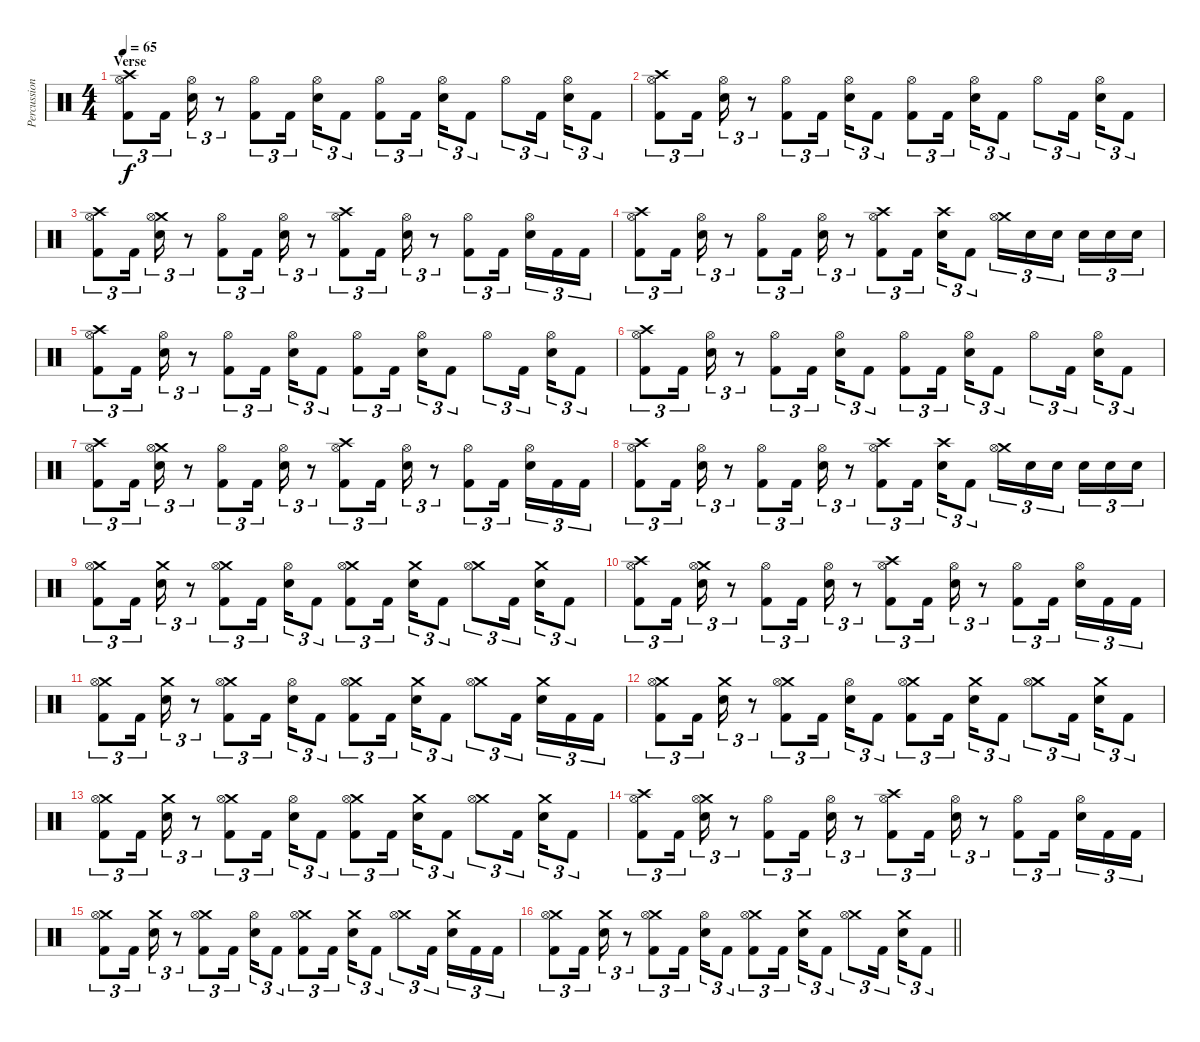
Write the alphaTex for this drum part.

\track ("Percussion" "Percussion") {instrument percussion}
\staff {score}
\articulation defaults
\ts (4 4)
\section ("" "Verse")
\tempo 65
\clef neutral
\ks c
("Crash high (hit)" "Hi-Hat (open)" "Kick (hit) 2").8{tu (3 2) dy f} "Kick (hit) 2".16{tu (3 2)} ("Hi-Hat (open)" "Electric Snare (hit)").16{tu (3 2)} r.8{tu (3 2)} ("Hi-Hat (open)" "Kick (hit) 2").8{tu (3 2)} "Kick (hit) 2".16{tu (3 2) beam splitsecondary} ("Hi-Hat (open)" "Electric Snare (hit)").16{tu (3 2)} "Kick (hit) 2".8{tu (3 2)} ("Hi-Hat (open)" "Kick (hit) 2").8{tu (3 2)} "Kick (hit) 2".16{tu (3 2) beam splitsecondary} ("Hi-Hat (open)" "Electric Snare (hit)").16{tu (3 2)} "Kick (hit) 2".8{tu (3 2)} "Hi-Hat (open)".8{tu (3 2)} "Kick (hit) 2".16{tu (3 2) beam splitsecondary} ("Hi-Hat (open)" "Electric Snare (hit)").16{tu (3 2)} "Kick (hit) 2".8{tu (3 2)} |
("Crash high (hit)" "Hi-Hat (open)" "Kick (hit) 2").8{tu (3 2)} "Kick (hit) 2".16{tu (3 2)} ("Hi-Hat (open)" "Electric Snare (hit)").16{tu (3 2)} r.8{tu (3 2)} ("Hi-Hat (open)" "Kick (hit) 2").8{tu (3 2)} "Kick (hit) 2".16{tu (3 2) beam splitsecondary} ("Hi-Hat (open)" "Electric Snare (hit)").16{tu (3 2)} "Kick (hit) 2".8{tu (3 2)} ("Hi-Hat (open)" "Kick (hit) 2").8{tu (3 2)} "Kick (hit) 2".16{tu (3 2) beam splitsecondary} ("Hi-Hat (open)" "Electric Snare (hit)").16{tu (3 2)} "Kick (hit) 2".8{tu (3 2)} "Hi-Hat (open)".8{tu (3 2)} "Kick (hit) 2".16{tu (3 2) beam splitsecondary} ("Hi-Hat (open)" "Electric Snare (hit)").16{tu (3 2)} "Kick (hit) 2".8{tu (3 2)} |
("Crash high (hit)" "Hi-Hat (open)" "Kick (hit) 2").8{tu (3 2)} "Kick (hit) 2".16{tu (3 2)} ("Crash medium (hit)" "Hi-Hat (open)" "Electric Snare (hit)").16{tu (3 2)} r.8{tu (3 2)} ("Hi-Hat (open)" "Kick (hit) 2").8{tu (3 2)} "Kick (hit) 2".16{tu (3 2)} ("Hi-Hat (open)" "Electric Snare (hit)").16{tu (3 2)} r.8{tu (3 2)} ("Crash high (hit)" "Hi-Hat (open)" "Kick (hit) 2").8{tu (3 2)} "Kick (hit) 2".16{tu (3 2)} ("Hi-Hat (open)" "Electric Snare (hit)").16{tu (3 2)} r.8{tu (3 2)} ("Hi-Hat (open)" "Kick (hit) 2").8{tu (3 2)} "Kick (hit) 2".16{tu (3 2) beam splitsecondary} ("Hi-Hat (open)" "Electric Snare (hit)").16{tu (3 2)} "Kick (hit) 2".16{tu (3 2)} "Kick (hit) 2".16{tu (3 2)} |
("Crash high (hit)" "Hi-Hat (open)" "Kick (hit) 2").8{tu (3 2)} "Kick (hit) 2".16{tu (3 2)} ("Hi-Hat (open)" "Electric Snare (hit)").16{tu (3 2)} r.8{tu (3 2)} ("Hi-Hat (open)" "Kick (hit) 2").8{tu (3 2)} "Kick (hit) 2".16{tu (3 2)} ("Hi-Hat (open)" "Electric Snare (hit)").16{tu (3 2)} r.8{tu (3 2)} ("Crash high (hit)" "Hi-Hat (open)" "Kick (hit) 2").8{tu (3 2)} "Kick (hit) 2".16{tu (3 2) beam splitsecondary} ("Crash high (hit)" "Electric Snare (hit)").16{tu (3 2)} "Kick (hit) 2".8{tu (3 2)} ("Crash medium (hit)" "Hi-Hat (open)").16{tu (3 2)} "Electric Snare (hit)".16{tu (3 2)} "Electric Snare (hit)".16{tu (3 2) beam splitsecondary} "Electric Snare (hit)".16{tu (3 2)} "Electric Snare (hit)".16{tu (3 2)} "Electric Snare (hit)".16{tu (3 2)} |
("Crash high (hit)" "Hi-Hat (open)" "Kick (hit) 2").8{tu (3 2)} "Kick (hit) 2".16{tu (3 2)} ("Hi-Hat (open)" "Electric Snare (hit)").16{tu (3 2)} r.8{tu (3 2)} ("Hi-Hat (open)" "Kick (hit) 2").8{tu (3 2)} "Kick (hit) 2".16{tu (3 2) beam splitsecondary} ("Hi-Hat (open)" "Electric Snare (hit)").16{tu (3 2)} "Kick (hit) 2".8{tu (3 2)} ("Hi-Hat (open)" "Kick (hit) 2").8{tu (3 2)} "Kick (hit) 2".16{tu (3 2) beam splitsecondary} ("Hi-Hat (open)" "Electric Snare (hit)").16{tu (3 2)} "Kick (hit) 2".8{tu (3 2)} "Hi-Hat (open)".8{tu (3 2)} "Kick (hit) 2".16{tu (3 2) beam splitsecondary} ("Hi-Hat (open)" "Electric Snare (hit)").16{tu (3 2)} "Kick (hit) 2".8{tu (3 2)} |
("Crash high (hit)" "Hi-Hat (open)" "Kick (hit) 2").8{tu (3 2)} "Kick (hit) 2".16{tu (3 2)} ("Hi-Hat (open)" "Electric Snare (hit)").16{tu (3 2)} r.8{tu (3 2)} ("Hi-Hat (open)" "Kick (hit) 2").8{tu (3 2)} "Kick (hit) 2".16{tu (3 2) beam splitsecondary} ("Hi-Hat (open)" "Electric Snare (hit)").16{tu (3 2)} "Kick (hit) 2".8{tu (3 2)} ("Hi-Hat (open)" "Kick (hit) 2").8{tu (3 2)} "Kick (hit) 2".16{tu (3 2) beam splitsecondary} ("Hi-Hat (open)" "Electric Snare (hit)").16{tu (3 2)} "Kick (hit) 2".8{tu (3 2)} "Hi-Hat (open)".8{tu (3 2)} "Kick (hit) 2".16{tu (3 2) beam splitsecondary} ("Hi-Hat (open)" "Electric Snare (hit)").16{tu (3 2)} "Kick (hit) 2".8{tu (3 2)} |
("Crash high (hit)" "Hi-Hat (open)" "Kick (hit) 2").8{tu (3 2)} "Kick (hit) 2".16{tu (3 2)} ("Crash medium (hit)" "Hi-Hat (open)" "Electric Snare (hit)").16{tu (3 2)} r.8{tu (3 2)} ("Hi-Hat (open)" "Kick (hit) 2").8{tu (3 2)} "Kick (hit) 2".16{tu (3 2)} ("Hi-Hat (open)" "Electric Snare (hit)").16{tu (3 2)} r.8{tu (3 2)} ("Crash high (hit)" "Hi-Hat (open)" "Kick (hit) 2").8{tu (3 2)} "Kick (hit) 2".16{tu (3 2)} ("Hi-Hat (open)" "Electric Snare (hit)").16{tu (3 2)} r.8{tu (3 2)} ("Hi-Hat (open)" "Kick (hit) 2").8{tu (3 2)} "Kick (hit) 2".16{tu (3 2) beam splitsecondary} ("Hi-Hat (open)" "Electric Snare (hit)").16{tu (3 2)} "Kick (hit) 2".16{tu (3 2)} "Kick (hit) 2".16{tu (3 2)} |
("Crash high (hit)" "Hi-Hat (open)" "Kick (hit) 2").8{tu (3 2)} "Kick (hit) 2".16{tu (3 2)} ("Hi-Hat (open)" "Electric Snare (hit)").16{tu (3 2)} r.8{tu (3 2)} ("Hi-Hat (open)" "Kick (hit) 2").8{tu (3 2)} "Kick (hit) 2".16{tu (3 2)} ("Hi-Hat (open)" "Electric Snare (hit)").16{tu (3 2)} r.8{tu (3 2)} ("Crash high (hit)" "Hi-Hat (open)" "Kick (hit) 2").8{tu (3 2)} "Kick (hit) 2".16{tu (3 2) beam splitsecondary} ("Crash high (hit)" "Electric Snare (hit)").16{tu (3 2)} "Kick (hit) 2".8{tu (3 2)} ("Crash medium (hit)" "Hi-Hat (open)").16{tu (3 2)} "Electric Snare (hit)".16{tu (3 2)} "Electric Snare (hit)".16{tu (3 2) beam splitsecondary} "Electric Snare (hit)".16{tu (3 2)} "Electric Snare (hit)".16{tu (3 2)} "Electric Snare (hit)".16{tu (3 2)} |
("Crash medium (hit)" "Hi-Hat (open)" "Kick (hit) 2").8{tu (3 2)} "Kick (hit) 2".16{tu (3 2)} ("Crash medium (hit)" "Electric Snare (hit)").16{tu (3 2)} r.8{tu (3 2)} ("Crash medium (hit)" "Hi-Hat (open)" "Kick (hit) 2").8{tu (3 2)} "Kick (hit) 2".16{tu (3 2) beam splitsecondary} ("Hi-Hat (open)" "Electric Snare (hit)").16{tu (3 2)} "Kick (hit) 2".8{tu (3 2)} ("Crash medium (hit)" "Hi-Hat (open)" "Kick (hit) 2").8{tu (3 2)} "Kick (hit) 2".16{tu (3 2) beam splitsecondary} ("Crash medium (hit)" "Electric Snare (hit)").16{tu (3 2)} "Kick (hit) 2".8{tu (3 2)} ("Crash medium (hit)" "Hi-Hat (open)").8{tu (3 2)} "Kick (hit) 2".16{tu (3 2) beam splitsecondary} ("Crash medium (hit)" "Electric Snare (hit)").16{tu (3 2)} "Kick (hit) 2".8{tu (3 2)} |
("Crash high (hit)" "Hi-Hat (open)" "Kick (hit) 2").8{tu (3 2)} "Kick (hit) 2".16{tu (3 2)} ("Crash medium (hit)" "Hi-Hat (open)" "Electric Snare (hit)").16{tu (3 2)} r.8{tu (3 2)} ("Hi-Hat (open)" "Kick (hit) 2").8{tu (3 2)} "Kick (hit) 2".16{tu (3 2)} ("Hi-Hat (open)" "Electric Snare (hit)").16{tu (3 2)} r.8{tu (3 2)} ("Crash high (hit)" "Hi-Hat (open)" "Kick (hit) 2").8{tu (3 2)} "Kick (hit) 2".16{tu (3 2)} ("Hi-Hat (open)" "Electric Snare (hit)").16{tu (3 2)} r.8{tu (3 2)} ("Hi-Hat (open)" "Kick (hit) 2").8{tu (3 2)} "Kick (hit) 2".16{tu (3 2) beam splitsecondary} ("Hi-Hat (open)" "Electric Snare (hit)").16{tu (3 2)} "Kick (hit) 2".16{tu (3 2)} "Kick (hit) 2".16{tu (3 2)} |
("Crash medium (hit)" "Hi-Hat (open)" "Kick (hit) 2").8{tu (3 2)} "Kick (hit) 2".16{tu (3 2)} ("Crash medium (hit)" "Electric Snare (hit)").16{tu (3 2)} r.8{tu (3 2)} ("Crash medium (hit)" "Hi-Hat (open)" "Kick (hit) 2").8{tu (3 2)} "Kick (hit) 2".16{tu (3 2) beam splitsecondary} ("Hi-Hat (open)" "Electric Snare (hit)").16{tu (3 2)} "Kick (hit) 2".8{tu (3 2)} ("Crash medium (hit)" "Hi-Hat (open)" "Kick (hit) 2").8{tu (3 2)} "Kick (hit) 2".16{tu (3 2) beam splitsecondary} ("Crash medium (hit)" "Electric Snare (hit)").16{tu (3 2)} "Kick (hit) 2".8{tu (3 2)} ("Crash medium (hit)" "Hi-Hat (open)").8{tu (3 2)} "Kick (hit) 2".16{tu (3 2) beam splitsecondary} ("Crash medium (hit)" "Electric Snare (hit)").16{tu (3 2)} "Kick (hit) 2".16{tu (3 2)} "Kick (hit) 2".16{tu (3 2)} |
("Crash medium (hit)" "Hi-Hat (open)" "Kick (hit) 2").8{tu (3 2)} "Kick (hit) 2".16{tu (3 2)} ("Crash medium (hit)" "Electric Snare (hit)").16{tu (3 2)} r.8{tu (3 2)} ("Crash medium (hit)" "Hi-Hat (open)" "Kick (hit) 2").8{tu (3 2)} "Kick (hit) 2".16{tu (3 2) beam splitsecondary} ("Hi-Hat (open)" "Electric Snare (hit)").16{tu (3 2)} "Kick (hit) 2".8{tu (3 2)} ("Crash medium (hit)" "Hi-Hat (open)" "Kick (hit) 2").8{tu (3 2)} "Kick (hit) 2".16{tu (3 2) beam splitsecondary} ("Crash medium (hit)" "Electric Snare (hit)").16{tu (3 2)} "Kick (hit) 2".8{tu (3 2)} ("Crash medium (hit)" "Hi-Hat (open)").8{tu (3 2)} "Kick (hit) 2".16{tu (3 2) beam splitsecondary} ("Crash medium (hit)" "Electric Snare (hit)").16{tu (3 2)} "Kick (hit) 2".8{tu (3 2)} |
("Crash medium (hit)" "Hi-Hat (open)" "Kick (hit) 2").8{tu (3 2)} "Kick (hit) 2".16{tu (3 2)} ("Crash medium (hit)" "Electric Snare (hit)").16{tu (3 2)} r.8{tu (3 2)} ("Crash medium (hit)" "Hi-Hat (open)" "Kick (hit) 2").8{tu (3 2)} "Kick (hit) 2".16{tu (3 2) beam splitsecondary} ("Hi-Hat (open)" "Electric Snare (hit)").16{tu (3 2)} "Kick (hit) 2".8{tu (3 2)} ("Crash medium (hit)" "Hi-Hat (open)" "Kick (hit) 2").8{tu (3 2)} "Kick (hit) 2".16{tu (3 2) beam splitsecondary} ("Crash medium (hit)" "Electric Snare (hit)").16{tu (3 2)} "Kick (hit) 2".8{tu (3 2)} ("Crash medium (hit)" "Hi-Hat (open)").8{tu (3 2)} "Kick (hit) 2".16{tu (3 2) beam splitsecondary} ("Crash medium (hit)" "Electric Snare (hit)").16{tu (3 2)} "Kick (hit) 2".8{tu (3 2)} |
("Crash high (hit)" "Hi-Hat (open)" "Kick (hit) 2").8{tu (3 2)} "Kick (hit) 2".16{tu (3 2)} ("Crash medium (hit)" "Hi-Hat (open)" "Electric Snare (hit)").16{tu (3 2)} r.8{tu (3 2)} ("Hi-Hat (open)" "Kick (hit) 2").8{tu (3 2)} "Kick (hit) 2".16{tu (3 2)} ("Hi-Hat (open)" "Electric Snare (hit)").16{tu (3 2)} r.8{tu (3 2)} ("Crash high (hit)" "Hi-Hat (open)" "Kick (hit) 2").8{tu (3 2)} "Kick (hit) 2".16{tu (3 2)} ("Hi-Hat (open)" "Electric Snare (hit)").16{tu (3 2)} r.8{tu (3 2)} ("Hi-Hat (open)" "Kick (hit) 2").8{tu (3 2)} "Kick (hit) 2".16{tu (3 2) beam splitsecondary} ("Hi-Hat (open)" "Electric Snare (hit)").16{tu (3 2)} "Kick (hit) 2".16{tu (3 2)} "Kick (hit) 2".16{tu (3 2)} |
("Crash medium (hit)" "Hi-Hat (open)" "Kick (hit) 2").8{tu (3 2)} "Kick (hit) 2".16{tu (3 2)} ("Crash medium (hit)" "Electric Snare (hit)").16{tu (3 2)} r.8{tu (3 2)} ("Crash medium (hit)" "Hi-Hat (open)" "Kick (hit) 2").8{tu (3 2)} "Kick (hit) 2".16{tu (3 2) beam splitsecondary} ("Hi-Hat (open)" "Electric Snare (hit)").16{tu (3 2)} "Kick (hit) 2".8{tu (3 2)} ("Crash medium (hit)" "Hi-Hat (open)" "Kick (hit) 2").8{tu (3 2)} "Kick (hit) 2".16{tu (3 2) beam splitsecondary} ("Crash medium (hit)" "Electric Snare (hit)").16{tu (3 2)} "Kick (hit) 2".8{tu (3 2)} ("Crash medium (hit)" "Hi-Hat (open)").8{tu (3 2)} "Kick (hit) 2".16{tu (3 2) beam splitsecondary} ("Crash medium (hit)" "Electric Snare (hit)").16{tu (3 2)} "Kick (hit) 2".16{tu (3 2)} "Kick (hit) 2".16{tu (3 2)} |
\barLineRight lightlight
("Crash medium (hit)" "Hi-Hat (open)" "Kick (hit) 2").8{tu (3 2)} "Kick (hit) 2".16{tu (3 2)} ("Crash medium (hit)" "Electric Snare (hit)").16{tu (3 2)} r.8{tu (3 2)} ("Crash medium (hit)" "Hi-Hat (open)" "Kick (hit) 2").8{tu (3 2)} "Kick (hit) 2".16{tu (3 2) beam splitsecondary} ("Hi-Hat (open)" "Electric Snare (hit)").16{tu (3 2)} "Kick (hit) 2".8{tu (3 2)} ("Crash medium (hit)" "Hi-Hat (open)" "Kick (hit) 2").8{tu (3 2)} "Kick (hit) 2".16{tu (3 2) beam splitsecondary} ("Crash medium (hit)" "Electric Snare (hit)").16{tu (3 2)} "Kick (hit) 2".8{tu (3 2)} ("Crash medium (hit)" "Hi-Hat (open)").8{tu (3 2)} "Kick (hit) 2".16{tu (3 2) beam splitsecondary} ("Crash medium (hit)" "Electric Snare (hit)").16{tu (3 2)} "Kick (hit) 2".8{tu (3 2)}
